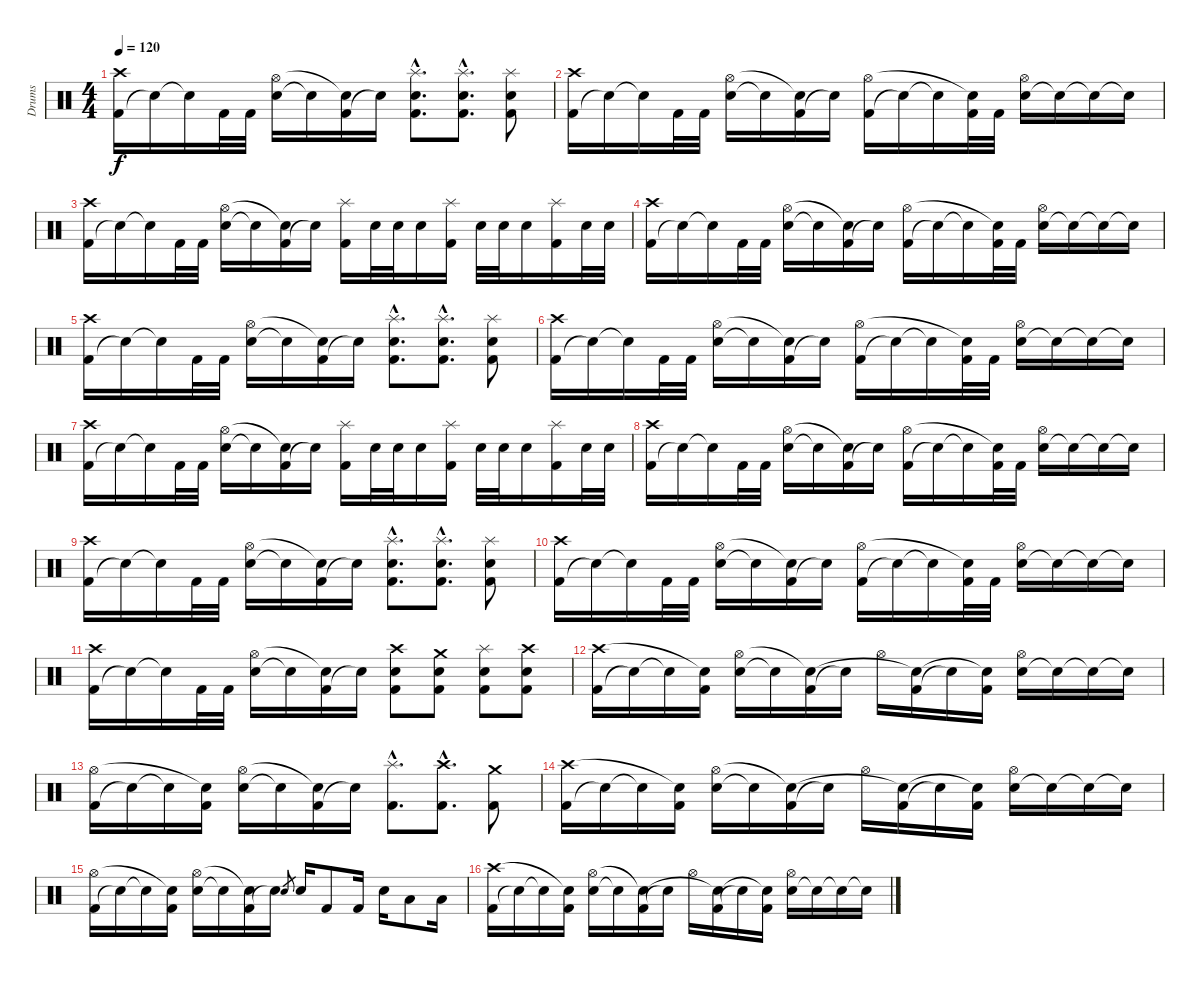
\track ("Drums" "Drums") {instrument percussion}
\staff {score}
\articulation defaults
\ts (4 4)
\tempo 120
\clef neutral
\ks c
("Kick (hit) 2" "Crash high (hit)").16{dy f} "Snare (hit)"{t}.16 "Snare (hit)"{t}.16 "Kick (hit) 2".32 "Kick (hit) 2".32 ("Snare (hit) 2" "Hi-Hat (open)").16 "Snare (hit)"{t}.16 ("Kick (hit) 2" "Snare (hit)"{t}).16 "Snare (hit)"{t}.16 ("Kick (hit) 2"{hac} "Snare (hit) 2"{hac} "Splash (hit)"{hac}).8{d} ("Kick (hit) 2"{hac} "Snare (hit) 2"{hac} "Splash (hit)"{hac}).8{d} ("Kick (hit) 2" "Snare (hit) 2" "Splash (hit)").8 |
("Kick (hit) 2" "Crash high (hit)").16 "Snare (hit)"{t}.16 "Snare (hit)"{t}.16 "Kick (hit) 2".32 "Kick (hit) 2".32 ("Snare (hit) 2" "Hi-Hat (open)").16 "Snare (hit)"{t}.16 ("Kick (hit) 2" "Snare (hit)"{t}).16 "Snare (hit)"{t}.16 ("Kick (hit) 2" "Hi-Hat (open)").16 "Snare (hit)"{t}.16 "Snare (hit)"{t}.16 ("Kick (hit) 2" "Snare (hit)"{t}).32 "Kick (hit) 2".32 ("Snare (hit) 2" "Hi-Hat (open)").16 "Snare (hit)"{t}.16 "Snare (hit)"{t}.16 "Snare (hit)"{t}.16 |
("Kick (hit) 2" "Crash high (hit)").16 "Snare (hit)"{t}.16 "Snare (hit)"{t}.16 "Kick (hit) 2".32 "Kick (hit) 2".32 ("Snare (hit) 2" "Hi-Hat (open)").16 "Snare (hit)"{t}.16 ("Kick (hit) 2" "Snare (hit)"{t}).16 "Snare (hit)"{t}.16 ("Kick (hit) 2" "Splash (hit)").16 "Snare (hit) 2".32 "Snare (hit) 2".32 "Snare (hit) 2".16 ("Kick (hit) 2" "Splash (hit)").16 "Snare (hit) 2".32 "Snare (hit) 2".32 "Snare (hit) 2".16 ("Kick (hit) 2" "Splash (hit)").16 "Snare (hit) 2".32 "Snare (hit) 2".32 |
("Kick (hit) 2" "Crash high (hit)").16 "Snare (hit)"{t}.16 "Snare (hit)"{t}.16 "Kick (hit) 2".32 "Kick (hit) 2".32 ("Snare (hit) 2" "Hi-Hat (open)").16 "Snare (hit)"{t}.16 ("Kick (hit) 2" "Snare (hit)"{t}).16 "Snare (hit)"{t}.16 ("Kick (hit) 2" "Hi-Hat (open)").16 "Snare (hit)"{t}.16 "Snare (hit)"{t}.16 ("Kick (hit) 2" "Snare (hit)"{t}).32 "Kick (hit) 2".32 ("Snare (hit) 2" "Hi-Hat (open)").16 "Snare (hit)"{t}.16 "Snare (hit)"{t}.16 "Snare (hit)"{t}.16 |
("Kick (hit) 2" "Crash high (hit)").16 "Snare (hit)"{t}.16 "Snare (hit)"{t}.16 "Kick (hit) 2".32 "Kick (hit) 2".32 ("Snare (hit) 2" "Hi-Hat (open)").16 "Snare (hit)"{t}.16 ("Kick (hit) 2" "Snare (hit)"{t}).16 "Snare (hit)"{t}.16 ("Kick (hit) 2"{hac} "Snare (hit) 2"{hac} "Splash (hit)"{hac}).8{d} ("Kick (hit) 2"{hac} "Snare (hit) 2"{hac} "Splash (hit)"{hac}).8{d} ("Kick (hit) 2" "Snare (hit) 2" "Splash (hit)").8 |
("Kick (hit) 2" "Crash high (hit)").16 "Snare (hit)"{t}.16 "Snare (hit)"{t}.16 "Kick (hit) 2".32 "Kick (hit) 2".32 ("Snare (hit) 2" "Hi-Hat (open)").16 "Snare (hit)"{t}.16 ("Kick (hit) 2" "Snare (hit)"{t}).16 "Snare (hit)"{t}.16 ("Kick (hit) 2" "Hi-Hat (open)").16 "Snare (hit)"{t}.16 "Snare (hit)"{t}.16 ("Kick (hit) 2" "Snare (hit)"{t}).32 "Kick (hit) 2".32 ("Snare (hit) 2" "Hi-Hat (open)").16 "Snare (hit)"{t}.16 "Snare (hit)"{t}.16 "Snare (hit)"{t}.16 |
("Kick (hit) 2" "Crash high (hit)").16 "Snare (hit)"{t}.16 "Snare (hit)"{t}.16 "Kick (hit) 2".32 "Kick (hit) 2".32 ("Snare (hit) 2" "Hi-Hat (open)").16 "Snare (hit)"{t}.16 ("Kick (hit) 2" "Snare (hit)"{t}).16 "Snare (hit)"{t}.16 ("Kick (hit) 2" "Splash (hit)").16 "Snare (hit) 2".32 "Snare (hit) 2".32 "Snare (hit) 2".16 ("Kick (hit) 2" "Splash (hit)").16 "Snare (hit) 2".32 "Snare (hit) 2".32 "Snare (hit) 2".16 ("Kick (hit) 2" "Splash (hit)").16 "Snare (hit) 2".32 "Snare (hit) 2".32 |
("Kick (hit) 2" "Crash high (hit)").16 "Snare (hit)"{t}.16 "Snare (hit)"{t}.16 "Kick (hit) 2".32 "Kick (hit) 2".32 ("Snare (hit) 2" "Hi-Hat (open)").16 "Snare (hit)"{t}.16 ("Kick (hit) 2" "Snare (hit)"{t}).16 "Snare (hit)"{t}.16 ("Kick (hit) 2" "Hi-Hat (open)").16 "Snare (hit)"{t}.16 "Snare (hit)"{t}.16 ("Kick (hit) 2" "Snare (hit)"{t}).32 "Kick (hit) 2".32 ("Snare (hit) 2" "Hi-Hat (open)").16 "Snare (hit)"{t}.16 "Snare (hit)"{t}.16 "Snare (hit)"{t}.16 |
("Kick (hit) 2" "Crash high (hit)").16 "Snare (hit)"{t}.16 "Snare (hit)"{t}.16 "Kick (hit) 2".32 "Kick (hit) 2".32 ("Snare (hit) 2" "Hi-Hat (open)").16 "Snare (hit)"{t}.16 ("Kick (hit) 2" "Snare (hit)"{t}).16 "Snare (hit)"{t}.16 ("Kick (hit) 2"{hac} "Snare (hit) 2"{hac} "Splash (hit)"{hac}).8{d} ("Kick (hit) 2"{hac} "Snare (hit) 2"{hac} "Splash (hit)"{hac}).8{d} ("Kick (hit) 2" "Snare (hit) 2" "Splash (hit)").8 |
("Kick (hit) 2" "Crash high (hit)").16 "Snare (hit)"{t}.16 "Snare (hit)"{t}.16 "Kick (hit) 2".32 "Kick (hit) 2".32 ("Snare (hit) 2" "Hi-Hat (open)").16 "Snare (hit)"{t}.16 ("Kick (hit) 2" "Snare (hit)"{t}).16 "Snare (hit)"{t}.16 ("Kick (hit) 2" "Hi-Hat (open)").16 "Snare (hit)"{t}.16 "Snare (hit)"{t}.16 ("Kick (hit) 2" "Snare (hit)"{t}).32 "Kick (hit) 2".32 ("Snare (hit) 2" "Hi-Hat (open)").16 "Snare (hit)"{t}.16 "Snare (hit)"{t}.16 "Snare (hit)"{t}.16 |
("Kick (hit) 2" "Crash high (hit)").16 "Snare (hit)"{t}.16 "Snare (hit)"{t}.16 "Kick (hit) 2".32 "Kick (hit) 2".32 ("Snare (hit) 2" "Hi-Hat (open)").16 "Snare (hit)"{t}.16 ("Kick (hit) 2" "Snare (hit)"{t}).16 "Snare (hit)"{t}.16 ("Kick (hit) 2" "Snare (hit) 2" "Crash high (hit)").8 ("Kick (hit) 2" "Snare (hit) 2" "Crash medium (hit)").8 ("Kick (hit) 2" "Snare (hit) 2" "Splash (hit)").8 ("Kick (hit) 2" "Snare (hit) 2" "Crash high (hit)").8 |
("Kick (hit) 2" "Crash high (hit)").16 "Snare (hit)"{t}.16 "Snare (hit)"{t}.16 ("Kick (hit) 2" "Snare (hit)"{t}).16 ("Snare (hit) 2" "Hi-Hat (open)").16 "Snare (hit)"{t}.16 ("Kick (hit) 2" "Snare (hit)"{t}).16 "Snare (hit)"{t}.16 "Hi-Hat (open)".16 ("Kick (hit) 2" "Snare (hit)"{t}).16 "Snare (hit)"{t}.16 ("Kick (hit) 2" "Snare (hit)"{t}).16 ("Snare (hit) 2" "Hi-Hat (open)").16 "Snare (hit)"{t}.16 "Snare (hit)"{t}.16 "Snare (hit)"{t}.16 |
("Kick (hit) 2" "Hi-Hat (open)").16 "Snare (hit)"{t}.16 "Snare (hit)"{t}.16 ("Kick (hit) 2" "Snare (hit)"{t}).16 ("Snare (hit) 2" "Hi-Hat (open)").16 "Snare (hit)"{t}.16 ("Kick (hit) 2" "Snare (hit)"{t}).16 "Snare (hit)"{t}.16 ("Kick (hit) 2"{hac} "Splash (hit)"{hac}).8{d} ("Kick (hit) 2"{hac} "Crash high (hit)"{hac}).8{d} ("Kick (hit) 2" "Crash medium (hit)").8 |
("Kick (hit) 2" "Crash high (hit)").16 "Snare (hit)"{t}.16 "Snare (hit)"{t}.16 ("Kick (hit) 2" "Snare (hit)"{t}).16 ("Snare (hit) 2" "Hi-Hat (open)").16 "Snare (hit)"{t}.16 ("Kick (hit) 2" "Snare (hit)"{t}).16 "Snare (hit)"{t}.16 "Hi-Hat (open)".16 ("Kick (hit) 2" "Snare (hit)"{t}).16 "Snare (hit)"{t}.16 ("Kick (hit) 2" "Snare (hit)"{t}).16 ("Snare (hit) 2" "Hi-Hat (open)").16 "Snare (hit)"{t}.16 "Snare (hit)"{t}.16 "Snare (hit)"{t}.16 |
("Kick (hit) 2" "Hi-Hat (open)").16 "Snare (hit)"{t}.16 "Snare (hit)"{t}.16 ("Kick (hit) 2" "Snare (hit)"{t}).16 ("Snare (hit) 2" "Hi-Hat (open)").16 "Snare (hit)"{t}.16 ("Kick (hit) 2" "Snare (hit)"{t}).16 "Snare (hit)"{t}.16 "Snare (hit) 2".8{gr} "Snare (hit) 2".16 "Kick (hit) 2".8 "Kick (hit) 2".16 "Snare (hit) 2".16 "Low Tom (hit)".8 "Low Tom (hit)".16 |
("Kick (hit) 2" "Crash high (hit)").16 "Snare (hit)"{t}.16 "Snare (hit)"{t}.16 ("Kick (hit) 2" "Snare (hit)"{t}).16 ("Snare (hit) 2" "Hi-Hat (open)").16 "Snare (hit)"{t}.16 ("Kick (hit) 2" "Snare (hit)"{t}).16 "Snare (hit)"{t}.16 "Hi-Hat (open)".16 ("Kick (hit) 2" "Snare (hit)"{t}).16 "Snare (hit)"{t}.16 ("Kick (hit) 2" "Snare (hit)"{t}).16 ("Snare (hit) 2" "Hi-Hat (open)").16 "Snare (hit)"{t}.16 "Snare (hit)"{t}.16 "Snare (hit)"{t}.16
